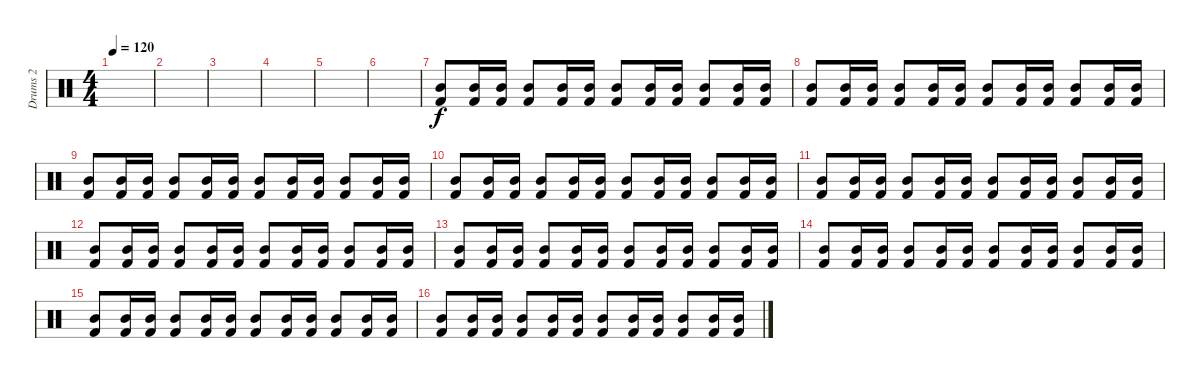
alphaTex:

\track ("Drums 2" "Drums 2") {instrument percussion}
\staff {score}
\articulation defaults
\ts (4 4)
\tempo 120
\clef neutral
\ks c
|
|
|
|
|
|
("Mid Tom (hit)" "Kick (hit) 2").8 ("Mid Tom (hit)" "Kick (hit) 2").16 ("Mid Tom (hit)" "Kick (hit) 2").16 ("Mid Tom (hit)" "Kick (hit) 2").8 ("Mid Tom (hit)" "Kick (hit) 2").16 ("Mid Tom (hit)" "Kick (hit) 2").16 ("Mid Tom (hit)" "Kick (hit) 2").8 ("Mid Tom (hit)" "Kick (hit) 2").16 ("Mid Tom (hit)" "Kick (hit) 2").16 ("Mid Tom (hit)" "Kick (hit) 2").8 ("Mid Tom (hit)" "Kick (hit) 2").16 ("Mid Tom (hit)" "Kick (hit) 2").16 |
("Mid Tom (hit)" "Kick (hit) 2").8 ("Mid Tom (hit)" "Kick (hit) 2").16 ("Mid Tom (hit)" "Kick (hit) 2").16 ("Mid Tom (hit)" "Kick (hit) 2").8 ("Mid Tom (hit)" "Kick (hit) 2").16 ("Mid Tom (hit)" "Kick (hit) 2").16 ("Mid Tom (hit)" "Kick (hit) 2").8 ("Mid Tom (hit)" "Kick (hit) 2").16 ("Mid Tom (hit)" "Kick (hit) 2").16 ("Mid Tom (hit)" "Kick (hit) 2").8 ("Mid Tom (hit)" "Kick (hit) 2").16 ("Mid Tom (hit)" "Kick (hit) 2").16 |
("Mid Tom (hit)" "Kick (hit) 2").8 ("Mid Tom (hit)" "Kick (hit) 2").16 ("Mid Tom (hit)" "Kick (hit) 2").16 ("Mid Tom (hit)" "Kick (hit) 2").8 ("Mid Tom (hit)" "Kick (hit) 2").16 ("Mid Tom (hit)" "Kick (hit) 2").16 ("Mid Tom (hit)" "Kick (hit) 2").8 ("Mid Tom (hit)" "Kick (hit) 2").16 ("Mid Tom (hit)" "Kick (hit) 2").16 ("Mid Tom (hit)" "Kick (hit) 2").8 ("Mid Tom (hit)" "Kick (hit) 2").16 ("Mid Tom (hit)" "Kick (hit) 2").16 |
("Mid Tom (hit)" "Kick (hit) 2").8 ("Mid Tom (hit)" "Kick (hit) 2").16 ("Mid Tom (hit)" "Kick (hit) 2").16 ("Mid Tom (hit)" "Kick (hit) 2").8 ("Mid Tom (hit)" "Kick (hit) 2").16 ("Mid Tom (hit)" "Kick (hit) 2").16 ("Mid Tom (hit)" "Kick (hit) 2").8 ("Mid Tom (hit)" "Kick (hit) 2").16 ("Mid Tom (hit)" "Kick (hit) 2").16 ("Mid Tom (hit)" "Kick (hit) 2").8 ("Mid Tom (hit)" "Kick (hit) 2").16 ("Mid Tom (hit)" "Kick (hit) 2").16 |
("Mid Tom (hit)" "Kick (hit) 2").8 ("Mid Tom (hit)" "Kick (hit) 2").16 ("Mid Tom (hit)" "Kick (hit) 2").16 ("Mid Tom (hit)" "Kick (hit) 2").8 ("Mid Tom (hit)" "Kick (hit) 2").16 ("Mid Tom (hit)" "Kick (hit) 2").16 ("Mid Tom (hit)" "Kick (hit) 2").8 ("Mid Tom (hit)" "Kick (hit) 2").16 ("Mid Tom (hit)" "Kick (hit) 2").16 ("Mid Tom (hit)" "Kick (hit) 2").8 ("Mid Tom (hit)" "Kick (hit) 2").16 ("Mid Tom (hit)" "Kick (hit) 2").16 |
("Mid Tom (hit)" "Kick (hit) 2").8 ("Mid Tom (hit)" "Kick (hit) 2").16 ("Mid Tom (hit)" "Kick (hit) 2").16 ("Mid Tom (hit)" "Kick (hit) 2").8 ("Mid Tom (hit)" "Kick (hit) 2").16 ("Mid Tom (hit)" "Kick (hit) 2").16 ("Mid Tom (hit)" "Kick (hit) 2").8 ("Mid Tom (hit)" "Kick (hit) 2").16 ("Mid Tom (hit)" "Kick (hit) 2").16 ("Mid Tom (hit)" "Kick (hit) 2").8 ("Mid Tom (hit)" "Kick (hit) 2").16 ("Mid Tom (hit)" "Kick (hit) 2").16 |
("Mid Tom (hit)" "Kick (hit) 2").8 ("Mid Tom (hit)" "Kick (hit) 2").16 ("Mid Tom (hit)" "Kick (hit) 2").16 ("Mid Tom (hit)" "Kick (hit) 2").8 ("Mid Tom (hit)" "Kick (hit) 2").16 ("Mid Tom (hit)" "Kick (hit) 2").16 ("Mid Tom (hit)" "Kick (hit) 2").8 ("Mid Tom (hit)" "Kick (hit) 2").16 ("Mid Tom (hit)" "Kick (hit) 2").16 ("Mid Tom (hit)" "Kick (hit) 2").8 ("Mid Tom (hit)" "Kick (hit) 2").16 ("Mid Tom (hit)" "Kick (hit) 2").16 |
("Mid Tom (hit)" "Kick (hit) 2").8 ("Mid Tom (hit)" "Kick (hit) 2").16 ("Mid Tom (hit)" "Kick (hit) 2").16 ("Mid Tom (hit)" "Kick (hit) 2").8 ("Mid Tom (hit)" "Kick (hit) 2").16 ("Mid Tom (hit)" "Kick (hit) 2").16 ("Mid Tom (hit)" "Kick (hit) 2").8 ("Mid Tom (hit)" "Kick (hit) 2").16 ("Mid Tom (hit)" "Kick (hit) 2").16 ("Mid Tom (hit)" "Kick (hit) 2").8 ("Mid Tom (hit)" "Kick (hit) 2").16 ("Mid Tom (hit)" "Kick (hit) 2").16 |
("Mid Tom (hit)" "Kick (hit) 2").8 ("Mid Tom (hit)" "Kick (hit) 2").16 ("Mid Tom (hit)" "Kick (hit) 2").16 ("Mid Tom (hit)" "Kick (hit) 2").8 ("Mid Tom (hit)" "Kick (hit) 2").16 ("Mid Tom (hit)" "Kick (hit) 2").16 ("Mid Tom (hit)" "Kick (hit) 2").8 ("Mid Tom (hit)" "Kick (hit) 2").16 ("Mid Tom (hit)" "Kick (hit) 2").16 ("Mid Tom (hit)" "Kick (hit) 2").8 ("Mid Tom (hit)" "Kick (hit) 2").16 ("Mid Tom (hit)" "Kick (hit) 2").16 |
("Mid Tom (hit)" "Kick (hit) 2").8 ("Mid Tom (hit)" "Kick (hit) 2").16 ("Mid Tom (hit)" "Kick (hit) 2").16 ("Mid Tom (hit)" "Kick (hit) 2").8 ("Mid Tom (hit)" "Kick (hit) 2").16 ("Mid Tom (hit)" "Kick (hit) 2").16 ("Mid Tom (hit)" "Kick (hit) 2").8 ("Mid Tom (hit)" "Kick (hit) 2").16 ("Mid Tom (hit)" "Kick (hit) 2").16 ("Mid Tom (hit)" "Kick (hit) 2").8 ("Mid Tom (hit)" "Kick (hit) 2").16 ("Mid Tom (hit)" "Kick (hit) 2").16
